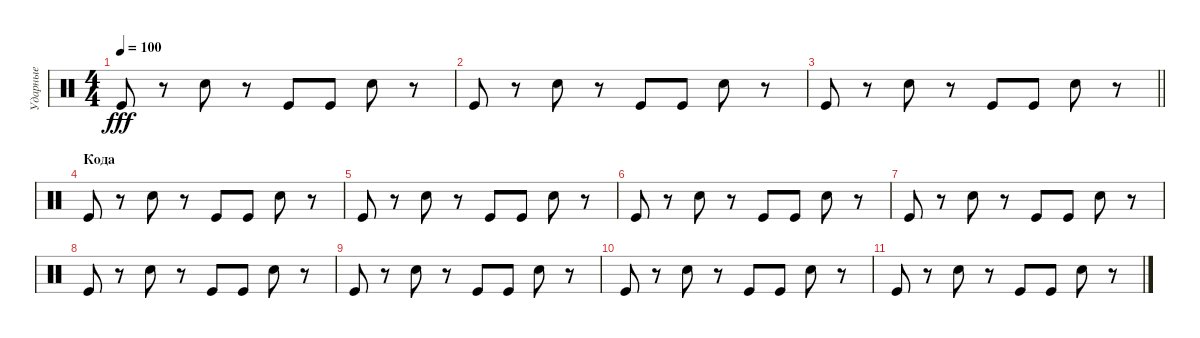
\track ("Ударные" "Ударные") {instrument percussion}
\staff {score}
\articulation defaults
\ts (4 4)
\tempo 100
\clef neutral
\ks c "Kick (hit)".8{dy fff}
r.8 "Electric Snare (hit)".8 r.8 "Kick (hit)".8 "Kick (hit)".8 "Electric Snare (hit)".8 r.8 |
"Kick (hit)".8 r.8 "Electric Snare (hit)".8 r.8 "Kick (hit)".8 "Kick (hit)".8 "Electric Snare (hit)".8 r.8 |
\barLineRight lightlight "Kick (hit)".8
r.8 "Electric Snare (hit)".8 r.8 "Kick (hit)".8 "Kick (hit)".8 "Electric Snare (hit)".8 r.8 |
\section ("" "Кода")
"Kick (hit)".8 r.8 "Electric Snare (hit)".8 r.8 "Kick (hit)".8 "Kick (hit)".8 "Electric Snare (hit)".8 r.8 |
"Kick (hit)".8 r.8 "Electric Snare (hit)".8 r.8 "Kick (hit)".8 "Kick (hit)".8 "Electric Snare (hit)".8 r.8 |
"Kick (hit)".8 r.8 "Electric Snare (hit)".8 r.8 "Kick (hit)".8 "Kick (hit)".8 "Electric Snare (hit)".8 r.8 |
"Kick (hit)".8 r.8 "Electric Snare (hit)".8 r.8 "Kick (hit)".8 "Kick (hit)".8 "Electric Snare (hit)".8 r.8 |
"Kick (hit)".8 r.8 "Electric Snare (hit)".8 r.8 "Kick (hit)".8 "Kick (hit)".8 "Electric Snare (hit)".8 r.8 |
"Kick (hit)".8 r.8 "Electric Snare (hit)".8 r.8 "Kick (hit)".8 "Kick (hit)".8 "Electric Snare (hit)".8 r.8 |
"Kick (hit)".8 r.8 "Electric Snare (hit)".8 r.8 "Kick (hit)".8 "Kick (hit)".8 "Electric Snare (hit)".8 r.8 |
"Kick (hit)".8 r.8 "Electric Snare (hit)".8 r.8 "Kick (hit)".8 "Kick (hit)".8 "Electric Snare (hit)".8 r.8
